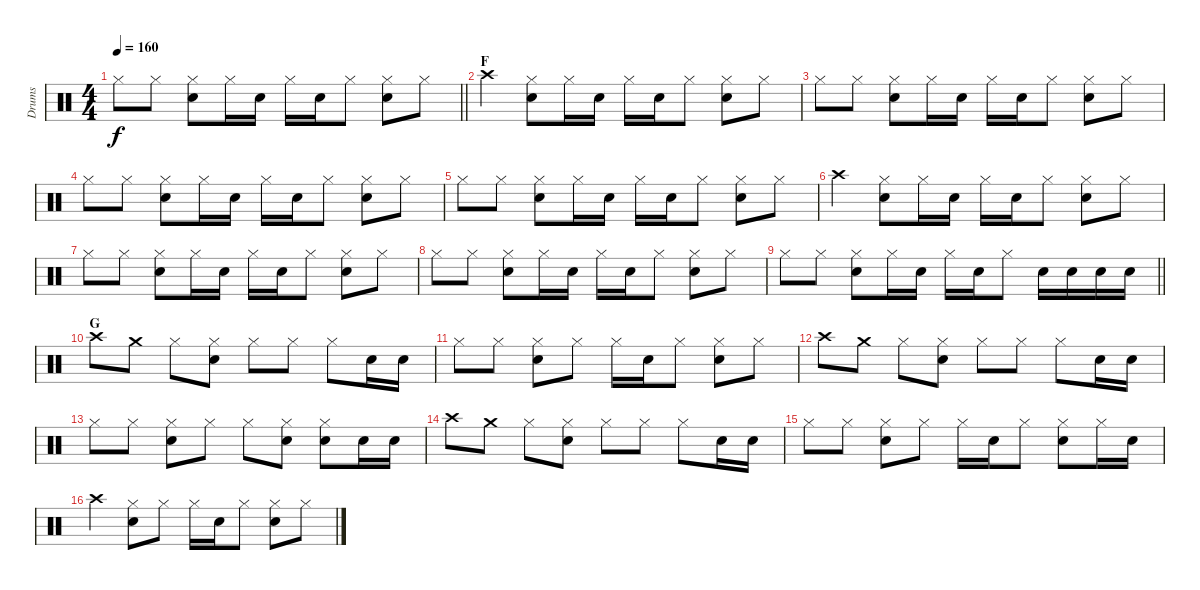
\track ("Drums" "Drums") {instrument percussion}
\staff {score}
\articulation defaults
\ts (4 4)
\tempo 160
\clef neutral
\barLineRight lightlight
\ks c "Hi-Hat (closed)".8{dy f} "Hi-Hat (closed)".8
("Hi-Hat (closed)" "Snare (hit) 2").8 "Hi-Hat (closed)".16 "Snare (hit) 2".16 "Hi-Hat (closed)".16 "Snare (hit) 2".16 "Hi-Hat (closed)".8 ("Hi-Hat (closed)" "Snare (hit) 2").8 "Hi-Hat (closed)".8 |
\section ("" "F")
"Crash high (hit)".4 ("Hi-Hat (closed)" "Snare (hit) 2").8 "Hi-Hat (closed)".16 "Snare (hit) 2".16 "Hi-Hat (closed)".16 "Snare (hit) 2".16 "Hi-Hat (closed)".8 ("Hi-Hat (closed)" "Snare (hit) 2").8 "Hi-Hat (closed)".8 |
"Hi-Hat (closed)".8 "Hi-Hat (closed)".8 ("Hi-Hat (closed)" "Snare (hit) 2").8 "Hi-Hat (closed)".16 "Snare (hit) 2".16 "Hi-Hat (closed)".16 "Snare (hit) 2".16 "Hi-Hat (closed)".8 ("Hi-Hat (closed)" "Snare (hit) 2").8 "Hi-Hat (closed)".8 |
"Hi-Hat (closed)".8 "Hi-Hat (closed)".8 ("Hi-Hat (closed)" "Snare (hit) 2").8 "Hi-Hat (closed)".16 "Snare (hit) 2".16 "Hi-Hat (closed)".16 "Snare (hit) 2".16 "Hi-Hat (closed)".8 ("Hi-Hat (closed)" "Snare (hit) 2").8 "Hi-Hat (closed)".8 |
"Hi-Hat (closed)".8 "Hi-Hat (closed)".8 ("Hi-Hat (closed)" "Snare (hit) 2").8 "Hi-Hat (closed)".16 "Snare (hit) 2".16 "Hi-Hat (closed)".16 "Snare (hit) 2".16 "Hi-Hat (closed)".8 ("Hi-Hat (closed)" "Snare (hit) 2").8 "Hi-Hat (closed)".8 |
"Crash high (hit)".4 ("Hi-Hat (closed)" "Snare (hit) 2").8 "Hi-Hat (closed)".16 "Snare (hit) 2".16 "Hi-Hat (closed)".16 "Snare (hit) 2".16 "Hi-Hat (closed)".8 ("Hi-Hat (closed)" "Snare (hit) 2").8 "Hi-Hat (closed)".8 |
"Hi-Hat (closed)".8 "Hi-Hat (closed)".8 ("Hi-Hat (closed)" "Snare (hit) 2").8 "Hi-Hat (closed)".16 "Snare (hit) 2".16 "Hi-Hat (closed)".16 "Snare (hit) 2".16 "Hi-Hat (closed)".8 ("Hi-Hat (closed)" "Snare (hit) 2").8 "Hi-Hat (closed)".8 |
"Hi-Hat (closed)".8 "Hi-Hat (closed)".8 ("Hi-Hat (closed)" "Snare (hit) 2").8 "Hi-Hat (closed)".16 "Snare (hit) 2".16 "Hi-Hat (closed)".16 "Snare (hit) 2".16 "Hi-Hat (closed)".8 ("Hi-Hat (closed)" "Snare (hit) 2").8 "Hi-Hat (closed)".8 |
\barLineRight lightlight "Hi-Hat (closed)".8 "Hi-Hat (closed)".8
("Hi-Hat (closed)" "Snare (hit) 2").8 "Hi-Hat (closed)".16 "Snare (hit) 2".16 "Hi-Hat (closed)".16 "Snare (hit) 2".16 "Hi-Hat (closed)".8 "Snare (hit) 2".16 "Snare (hit) 2".16 "Snare (hit) 2".16 "Snare (hit) 2".16 |
\section ("" "G")
"Crash high (hit)".8 "Crash medium (hit)".8 "Hi-Hat (closed)".8 ("Hi-Hat (closed)" "Snare (hit) 2").8 "Hi-Hat (closed)".8 "Hi-Hat (closed)".8 "Hi-Hat (closed)".8 "Snare (hit) 2".16 "Snare (hit) 2".16 |
"Hi-Hat (closed)".8 "Hi-Hat (closed)".8 ("Hi-Hat (closed)" "Snare (hit) 2").8 "Hi-Hat (closed)".8 "Hi-Hat (closed)".16 "Snare (hit) 2".16 "Hi-Hat (closed)".8 ("Hi-Hat (closed)" "Snare (hit) 2").8 "Hi-Hat (closed)".8 |
"Crash high (hit)".8 "Crash medium (hit)".8 "Hi-Hat (closed)".8 ("Hi-Hat (closed)" "Snare (hit) 2").8 "Hi-Hat (closed)".8 "Hi-Hat (closed)".8 "Hi-Hat (closed)".8 "Snare (hit) 2".16 "Snare (hit) 2".16 |
"Hi-Hat (closed)".8 "Hi-Hat (closed)".8 ("Hi-Hat (closed)" "Snare (hit) 2").8 "Hi-Hat (closed)".8 "Hi-Hat (closed)".8 ("Hi-Hat (closed)" "Snare (hit) 2").8 ("Hi-Hat (closed)" "Snare (hit) 2").8 "Snare (hit) 2".16 "Snare (hit) 2".16 |
"Crash high (hit)".8 "Crash medium (hit)".8 "Hi-Hat (closed)".8 ("Hi-Hat (closed)" "Snare (hit) 2").8 "Hi-Hat (closed)".8 "Hi-Hat (closed)".8 "Hi-Hat (closed)".8 "Snare (hit) 2".16 "Snare (hit) 2".16 |
"Hi-Hat (closed)".8 "Hi-Hat (closed)".8 ("Hi-Hat (closed)" "Snare (hit) 2").8 "Hi-Hat (closed)".8 "Hi-Hat (closed)".16 "Snare (hit) 2".16 "Hi-Hat (closed)".8 ("Hi-Hat (closed)" "Snare (hit) 2").8 "Hi-Hat (closed)".16 "Snare (hit) 2".16 |
"Crash high (hit)".4 ("Hi-Hat (closed)" "Snare (hit) 2").8 "Hi-Hat (closed)".8 "Hi-Hat (closed)".16 "Snare (hit) 2".16 "Hi-Hat (closed)".8 ("Hi-Hat (closed)" "Snare (hit) 2").8 "Hi-Hat (closed)".8
